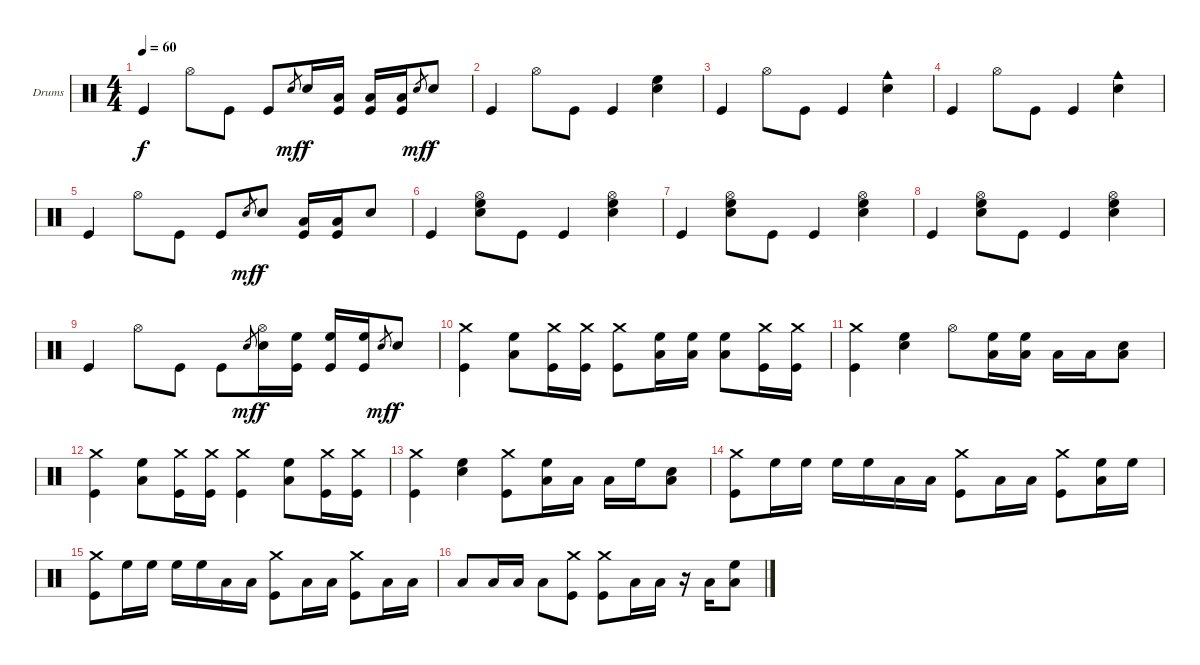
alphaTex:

\bracketExtendMode groupsimilarinstruments
\firstSystemTrackNameOrientation horizontal
\otherSystemsTrackNameOrientation horizontal
\track ("Drumkit" "Drums") {instrument percussion}
\staff {score}
\articulation defaults
\ts (4 4)
\tempo 60
\clef neutral
\ks c "Kick (hit)".4{dy f} "Hi-Hat (open)".8 "Kick (hit)".8 "Kick (hit)".8 "Snare (hit) 2".8{gr dy mf} "Snare (hit) 2".16{dy f}
("Low Tom (hit)" "Kick (hit)").16 ("Low Tom (hit)" "Kick (hit)").16 ("Low Tom (hit)" "Kick (hit)").16 "Snare (hit) 2".8{gr dy mf} "Snare (hit) 2".8{dy f} |
"Kick (hit)".4 "Hi-Hat (open)".8 "Kick (hit)".8 "Kick (hit)".4 ("High Floor Tom (hit)" "Snare (hit) 2").4 |
"Kick (hit)".4 "Hi-Hat (open)".8 "Kick (hit)".8 "Kick (hit)".4 ("Cowbell medium (hit)" "Snare (hit) 2").4 |
"Kick (hit)".4 "Hi-Hat (open)".8 "Kick (hit)".8 "Kick (hit)".4 ("Cowbell medium (hit)" "Snare (hit) 2").4 |
"Kick (hit)".4 "Hi-Hat (open)".8 "Kick (hit)".8 "Kick (hit)".8 "Snare (hit) 2".8{gr dy mf} "Snare (hit) 2".8{dy f} ("Kick (hit)" "Low Tom (hit)").16 ("Kick (hit)" "Low Tom (hit)").16 "Snare (hit) 2".8 |
"Kick (hit)".4 ("Hi-Hat (open)" "High Floor Tom (hit)" "Snare (hit) 2").8 "Kick (hit)".8 "Kick (hit)".4 ("Hi-Hat (open)" "High Floor Tom (hit)" "Snare (hit) 2").4 |
"Kick (hit)".4 ("Hi-Hat (open)" "High Floor Tom (hit)" "Snare (hit) 2").8 "Kick (hit)".8 "Kick (hit)".4 ("Hi-Hat (open)" "High Floor Tom (hit)" "Snare (hit) 2").4 |
"Kick (hit)".4 ("Hi-Hat (open)" "High Floor Tom (hit)" "Snare (hit) 2").8 "Kick (hit)".8 "Kick (hit)".4 ("Hi-Hat (open)" "High Floor Tom (hit)" "Snare (hit) 2").4 |
"Kick (hit)".4 "Hi-Hat (open)".8 "Kick (hit)".8 "Kick (hit)".8 "Snare (hit) 2".8{gr dy mf} ("Hi-Hat (open)" "Snare (hit) 2").16{dy f} ("Kick (hit)" "High Floor Tom (hit)").16 ("Kick (hit)" "High Floor Tom (hit)").16 ("Kick (hit)" "High Floor Tom (hit)").16 "Snare (hit) 2".8{gr dy mf} "Snare (hit) 2".8{dy f} |
("Crash medium (hit)" "Kick (hit)").4 ("High Floor Tom (hit)" "Low Tom (hit)").8 ("Crash medium (hit)" "Kick (hit)").16 ("Crash medium (hit)" "Kick (hit)").16 ("Crash medium (hit)" "Kick (hit)").8 ("High Floor Tom (hit)" "Low Tom (hit)").16 ("High Floor Tom (hit)" "Low Tom (hit)").16 ("High Floor Tom (hit)" "Low Tom (hit)").8 ("Crash medium (hit)" "Kick (hit)").16 ("Crash medium (hit)" "Kick (hit)").16 |
("Crash medium (hit)" "Kick (hit)").4 ("High Floor Tom (hit)" "Snare (hit) 2").4 "Hi-Hat (open)".8 ("High Floor Tom (hit)" "Low Tom (hit)").16 ("High Floor Tom (hit)" "Low Tom (hit)").16 "Low Tom (hit)".16 "Low Tom (hit)".16 ("Snare (hit) 2" "Low Tom (hit)").8 |
("Crash medium (hit)" "Kick (hit)").4 ("High Floor Tom (hit)" "Low Tom (hit)").8 ("Crash medium (hit)" "Kick (hit)").16 ("Crash medium (hit)" "Kick (hit)").16 ("Crash medium (hit)" "Kick (hit)").4 ("High Floor Tom (hit)" "Low Tom (hit)").8 ("Crash medium (hit)" "Kick (hit)").16 ("Crash medium (hit)" "Kick (hit)").16 |
("Crash medium (hit)" "Kick (hit)").4 ("Snare (hit) 2" "High Floor Tom (hit)").4 ("Crash medium (hit)" "Kick (hit)").8 ("High Floor Tom (hit)" "Low Tom (hit)").16 "Low Tom (hit)".16 "Low Tom (hit)".16 "High Floor Tom (hit)".16 ("Snare (hit) 2" "Low Tom (hit)").8 |
("Crash medium (hit)" "Kick (hit)").8 "High Floor Tom (hit)".16 "High Floor Tom (hit)".16 "High Floor Tom (hit)".16 "High Floor Tom (hit)".16 "Low Tom (hit)".16 "Low Tom (hit)".16 ("Crash medium (hit)" "Kick (hit)").8 "Low Tom (hit)".16 "Low Tom (hit)".16 ("Crash medium (hit)" "Kick (hit)").8 ("High Floor Tom (hit)" "Low Tom (hit)").16 "High Floor Tom (hit)".16 |
("Crash medium (hit)" "Kick (hit)").8 "High Floor Tom (hit)".16 "High Floor Tom (hit)".16 "High Floor Tom (hit)".16 "High Floor Tom (hit)".16 "Low Tom (hit)".16 "Low Tom (hit)".16 ("Crash medium (hit)" "Kick (hit)").8 "Low Tom (hit)".16 "Low Tom (hit)".16 ("Crash medium (hit)" "Kick (hit)").8 "Low Tom (hit)".16 "Low Tom (hit)".16 |
"Low Tom (hit)".8 "Low Tom (hit)".16 "Low Tom (hit)".16 "Low Tom (hit)".8 ("Crash medium (hit)" "Kick (hit)").8 ("Crash medium (hit)" "Kick (hit)").8 "Low Tom (hit)".16 "Low Tom (hit)".16 r.16 "Low Tom (hit)".16 ("High Floor Tom (hit)" "Low Tom (hit)").8
